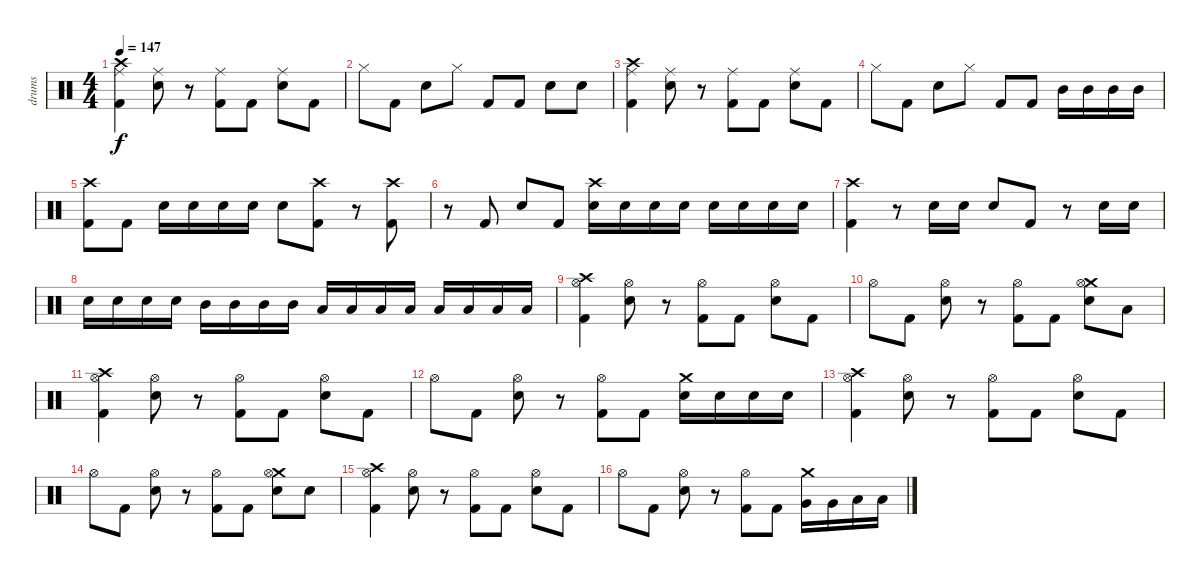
\track ("drums" "drums") {instrument percussion}
\staff {score}
\articulation defaults
\ts (4 4)
\tempo 147
\clef neutral
\ks c
("Ride (middle)" "Crash high (hit)" "Kick (hit) 2").4{dy f} ("Ride (middle)" "Electric Snare (hit)").8 r.8 ("Ride (middle)" "Kick (hit) 2").8 "Kick (hit) 2".8 ("Ride (middle)" "Electric Snare (hit)").8 "Kick (hit) 2".8 |
"Hi-Hat (closed)".8 "Kick (hit) 2".8 "Electric Snare (hit)".8 "Hi-Hat (closed)".8 "Kick (hit) 2".8 "Kick (hit) 2".8 "Electric Snare (hit)".8 "Electric Snare (hit)".8 |
("Ride (middle)" "Crash high (hit)" "Kick (hit) 2").4 ("Ride (middle)" "Electric Snare (hit)").8 r.8 ("Ride (middle)" "Kick (hit) 2").8 "Kick (hit) 2".8 ("Ride (middle)" "Electric Snare (hit)").8 "Kick (hit) 2".8 |
"Hi-Hat (closed)".8 "Kick (hit) 2".8 "Electric Snare (hit)".8 "Hi-Hat (closed)".8 "Kick (hit) 2".8 "Kick (hit) 2".8 "Mid Tom (hit)".16 "Mid Tom (hit)".16 "Mid Tom (hit)".16 "Mid Tom (hit)".16 |
("Crash high (hit)" "Kick (hit) 2").8 "Kick (hit) 2".8 "Electric Snare (hit)".16 "Electric Snare (hit)".16 "Electric Snare (hit)".16 "Electric Snare (hit)".16 "Electric Snare (hit)".8 ("Crash high (hit)" "Kick (hit) 2").8 r.8 ("Crash high (hit)" "Kick (hit) 2").8 |
r.8 "Kick (hit) 2".8 "Electric Snare (hit)".8 "Kick (hit) 2".8 ("Crash high (hit)" "Electric Snare (hit)").16 "Electric Snare (hit)".16 "Electric Snare (hit)".16 "Electric Snare (hit)".16 "Electric Snare (hit)".16 "Electric Snare (hit)".16 "Electric Snare (hit)".16 "Electric Snare (hit)".16 |
("Crash high (hit)" "Kick (hit) 2").4 r.8 "Electric Snare (hit)".16 "Electric Snare (hit)".16 "Electric Snare (hit)".8 "Kick (hit) 2".8 r.8 "Electric Snare (hit)".16 "Electric Snare (hit)".16 |
"Electric Snare (hit)".16 "Electric Snare (hit)".16 "Electric Snare (hit)".16 "Electric Snare (hit)".16 "Mid Tom (hit)".16 "Mid Tom (hit)".16 "Mid Tom (hit)".16 "Mid Tom (hit)".16 "Low Tom (hit)".16 "Low Tom (hit)".16 "Low Tom (hit)".16 "Low Tom (hit)".16 "Low Floor Tom (hit)".16 "Low Floor Tom (hit)".16 "Low Floor Tom (hit)".16 "Low Floor Tom (hit)".16 |
("Crash high (hit)" "Hi-Hat (open)" "Kick (hit) 2").4 ("Hi-Hat (open)" "Electric Snare (hit)").8 r.8 ("Hi-Hat (open)" "Kick (hit) 2").8 "Kick (hit) 2".8 ("Hi-Hat (open)" "Electric Snare (hit)").8 "Kick (hit) 2".8 |
"Hi-Hat (open)".8 "Kick (hit) 2".8 ("Hi-Hat (open)" "Electric Snare (hit)").8 r.8 ("Hi-Hat (open)" "Kick (hit) 2").8 "Kick (hit) 2".8 ("Crash medium (hit)" "Hi-Hat (open)" "Electric Snare (hit)").8 "Low Tom (hit)".8 |
("Crash high (hit)" "Hi-Hat (open)" "Kick (hit) 2").4 ("Hi-Hat (open)" "Electric Snare (hit)").8 r.8 ("Hi-Hat (open)" "Kick (hit) 2").8 "Kick (hit) 2".8 ("Hi-Hat (open)" "Electric Snare (hit)").8 "Kick (hit) 2".8 |
"Hi-Hat (open)".8 "Kick (hit) 2".8 ("Hi-Hat (open)" "Electric Snare (hit)").8 r.8 ("Hi-Hat (open)" "Kick (hit) 2").8 "Kick (hit) 2".8 ("Crash medium (hit)" "Electric Snare (hit)").16 "Electric Snare (hit)".16 "Electric Snare (hit)".16 "Electric Snare (hit)".16 |
("Crash high (hit)" "Hi-Hat (open)" "Kick (hit) 2").4 ("Hi-Hat (open)" "Electric Snare (hit)").8 r.8 ("Hi-Hat (open)" "Kick (hit) 2").8 "Kick (hit) 2".8 ("Hi-Hat (open)" "Electric Snare (hit)").8 "Kick (hit) 2".8 |
"Hi-Hat (open)".8 "Kick (hit) 2".8 ("Hi-Hat (open)" "Electric Snare (hit)").8 r.8 ("Hi-Hat (open)" "Kick (hit) 2").8 "Kick (hit) 2".8 ("Crash medium (hit)" "Hi-Hat (open)" "Electric Snare (hit)").8 "Electric Snare (hit)".8 |
("Crash high (hit)" "Hi-Hat (open)" "Kick (hit) 2").4 ("Hi-Hat (open)" "Electric Snare (hit)").8 r.8 ("Hi-Hat (open)" "Kick (hit) 2").8 "Kick (hit) 2".8 ("Hi-Hat (open)" "Electric Snare (hit)").8 "Kick (hit) 2".8 |
"Hi-Hat (open)".8 "Kick (hit) 2".8 ("Hi-Hat (open)" "Electric Snare (hit)").8 r.8 ("Hi-Hat (open)" "Kick (hit) 2").8 "Kick (hit) 2".8 ("Crash medium (hit)" "Very Low Tom (hit)").16 "Very Low Tom (hit)".16 "Low Floor Tom (hit)".16 "Low Floor Tom (hit)".16
